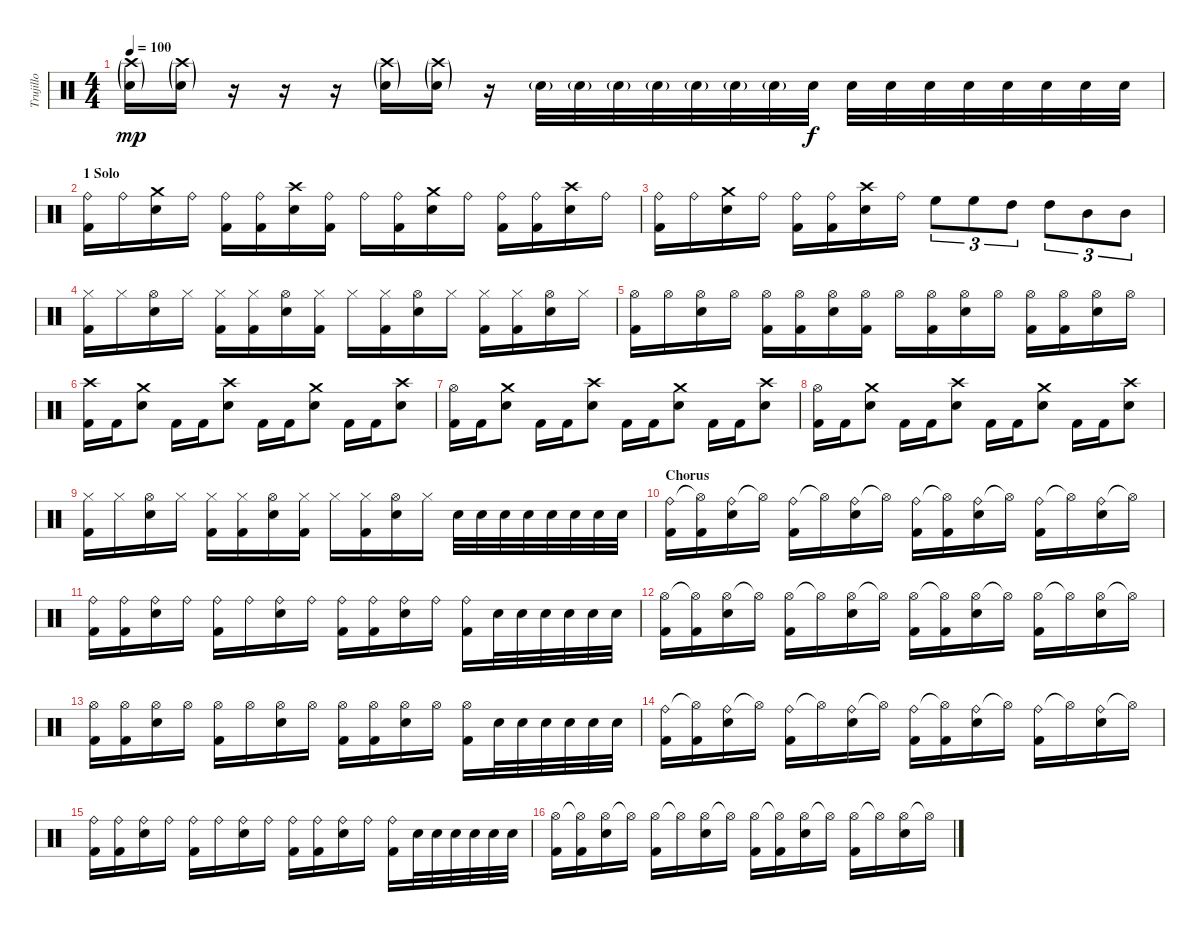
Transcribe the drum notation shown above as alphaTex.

\track ("Trujillo" "Trujillo") {instrument percussion}
\staff {score}
\articulation defaults
\ts (4 4)
\tempo 100
\clef neutral
\ks c
("Crash high (hit)"{g} "Electric Snare (hit)"{g}).16{dy mp} ("Crash high (hit)"{g} "Electric Snare (hit)"{g}).16 r.16 r.16 r.16 ("Crash high (hit)"{g} "Electric Snare (hit)"{g}).16 ("Crash high (hit)"{g} "Electric Snare (hit)"{g}).16 r.16 "Electric Snare (hit)"{g}.32 "Electric Snare (hit)"{g}.32 "Electric Snare (hit)"{g}.32 "Electric Snare (hit)"{g}.32 "Electric Snare (hit)"{g}.32 "Electric Snare (hit)"{g}.32 "Electric Snare (hit)"{g}.32 "Electric Snare (hit)".32{dy f} "Electric Snare (hit)".32 "Electric Snare (hit)".32 "Electric Snare (hit)".32 "Electric Snare (hit)".32 "Electric Snare (hit)".32 "Electric Snare (hit)".32 "Electric Snare (hit)".32 "Electric Snare (hit)".32 |
\section ("" "1 Solo")
("Ride (bell)" "Kick (hit) 2").16 "Ride (bell)".16 ("Crash medium (hit)" "Electric Snare (hit)").16 "Ride (bell)".16 ("Ride (bell)" "Kick (hit) 2").16 ("Ride (bell)" "Kick (hit) 2").16 ("Crash high (hit)" "Electric Snare (hit)").16 ("Ride (bell)" "Kick (hit) 2").16 "Ride (bell)".16 ("Ride (bell)" "Kick (hit) 2").16 ("Crash medium (hit)" "Electric Snare (hit)").16 "Ride (bell)".16 ("Ride (bell)" "Kick (hit) 2").16 ("Ride (bell)" "Kick (hit) 2").16 ("Crash high (hit)" "Electric Snare (hit)").16 "Ride (bell)".16 |
("Ride (bell)" "Kick (hit) 2").16 "Ride (bell)".16 ("Crash medium (hit)" "Electric Snare (hit)").16 "Ride (bell)".16 ("Ride (bell)" "Kick (hit) 2").16 ("Ride (bell)" "Kick (hit) 2").16 ("Crash high (hit)" "Electric Snare (hit)").16 "Ride (bell)".16 "High Floor Tom (hit)".8{tu (3 2)} "High Floor Tom (hit)".8{tu (3 2)} "High Tom (hit)".8{tu (3 2)} "High Tom (hit)".8{tu (3 2)} "Mid Tom (hit)".8{tu (3 2)} "Mid Tom (hit)".8{tu (3 2)} |
("Hi-Hat (closed)" "Kick (hit) 2").16 "Hi-Hat (closed)".16 ("Hi-Hat (open)" "Electric Snare (hit)").16 "Hi-Hat (closed)".16 ("Hi-Hat (closed)" "Kick (hit) 2").16 ("Hi-Hat (closed)" "Kick (hit) 2").16 ("Hi-Hat (open)" "Electric Snare (hit)").16 ("Hi-Hat (closed)" "Kick (hit) 2").16 "Hi-Hat (closed)".16 ("Hi-Hat (closed)" "Kick (hit) 2").16 ("Hi-Hat (open)" "Electric Snare (hit)").16 "Hi-Hat (closed)".16 ("Hi-Hat (closed)" "Kick (hit) 2").16 ("Hi-Hat (closed)" "Kick (hit) 2").16 ("Hi-Hat (open)" "Electric Snare (hit)").16 "Hi-Hat (closed)".16 |
("Hi-Hat (open)" "Kick (hit) 2").16 "Hi-Hat (open)".16 ("Hi-Hat (open)" "Electric Snare (hit)").16 "Hi-Hat (open)".16 ("Hi-Hat (open)" "Kick (hit) 2").16 ("Hi-Hat (open)" "Kick (hit) 2").16 ("Hi-Hat (open)" "Electric Snare (hit)").16 ("Hi-Hat (open)" "Kick (hit) 2").16 "Hi-Hat (open)".16 ("Hi-Hat (open)" "Kick (hit) 2").16 ("Hi-Hat (open)" "Electric Snare (hit)").16 "Hi-Hat (open)".16 ("Hi-Hat (open)" "Kick (hit) 2").16 ("Hi-Hat (open)" "Kick (hit) 2").16 ("Hi-Hat (open)" "Electric Snare (hit)").16 "Hi-Hat (open)".16 |
("Crash high (hit)" "Kick (hit) 2").16 "Kick (hit) 2".16 ("Crash medium (hit)" "Electric Snare (hit)").8 "Kick (hit) 2".16 "Kick (hit) 2".16 ("Crash high (hit)" "Electric Snare (hit)").8 "Kick (hit) 2".16 "Kick (hit) 2".16 ("Crash medium (hit)" "Electric Snare (hit)").8 "Kick (hit) 2".16 "Kick (hit) 2".16 ("Crash high (hit)" "Electric Snare (hit)").8 |
("Hi-Hat (open)" "Kick (hit) 2").16 "Kick (hit) 2".16 ("Crash medium (hit)" "Electric Snare (hit)").8 "Kick (hit) 2".16 "Kick (hit) 2".16 ("Crash high (hit)" "Electric Snare (hit)").8 "Kick (hit) 2".16 "Kick (hit) 2".16 ("Crash medium (hit)" "Electric Snare (hit)").8 "Kick (hit) 2".16 "Kick (hit) 2".16 ("Crash high (hit)" "Electric Snare (hit)").8 |
("Hi-Hat (open)" "Kick (hit) 2").16 "Kick (hit) 2".16 ("Crash medium (hit)" "Electric Snare (hit)").8 "Kick (hit) 2".16 "Kick (hit) 2".16 ("Crash high (hit)" "Electric Snare (hit)").8 "Kick (hit) 2".16 "Kick (hit) 2".16 ("Crash medium (hit)" "Electric Snare (hit)").8 "Kick (hit) 2".16 "Kick (hit) 2".16 ("Crash high (hit)" "Electric Snare (hit)").8 |
("Hi-Hat (closed)" "Kick (hit) 2").16 "Hi-Hat (closed)".16 ("Hi-Hat (open)" "Electric Snare (hit)").16 "Hi-Hat (closed)".16 ("Hi-Hat (closed)" "Kick (hit) 2").16 ("Hi-Hat (closed)" "Kick (hit) 2").16 ("Hi-Hat (open)" "Electric Snare (hit)").16 ("Hi-Hat (closed)" "Kick (hit) 2").16 "Hi-Hat (closed)".16 ("Hi-Hat (closed)" "Kick (hit) 2").16 ("Hi-Hat (open)" "Electric Snare (hit)").16 "Hi-Hat (closed)".16 "Electric Snare (hit)".32 "Electric Snare (hit)".32 "Electric Snare (hit)".32 "Electric Snare (hit)".32 "Electric Snare (hit)".32 "Electric Snare (hit)".32 "Electric Snare (hit)".32 "Electric Snare (hit)".32 |
\section ("" "Chorus")
("Ride (bell)" "Kick (hit) 2").16 ("Hi-Hat (open)"{t} "Kick (hit) 2").16 ("Ride (bell)" "Electric Snare (hit)").16 "Hi-Hat (open)"{t}.16 ("Ride (bell)" "Kick (hit) 2").16 "Hi-Hat (open)"{t}.16 ("Ride (bell)" "Electric Snare (hit)").16 "Hi-Hat (open)"{t}.16 ("Ride (bell)" "Kick (hit) 2").16 ("Hi-Hat (open)"{t} "Kick (hit) 2").16 ("Ride (bell)" "Electric Snare (hit)").16 "Hi-Hat (open)"{t}.16 ("Ride (bell)" "Kick (hit) 2").16 "Hi-Hat (open)"{t}.16 ("Ride (bell)" "Electric Snare (hit)").16 "Hi-Hat (open)"{t}.16 |
("Ride (bell)" "Kick (hit) 2").16 ("Ride (bell)" "Kick (hit) 2").16 ("Ride (bell)" "Electric Snare (hit)").16 "Ride (bell)".16 ("Ride (bell)" "Kick (hit) 2").16 "Ride (bell)".16 ("Ride (bell)" "Electric Snare (hit)").16 "Ride (bell)".16 ("Ride (bell)" "Kick (hit) 2").16 ("Ride (bell)" "Kick (hit) 2").16 ("Ride (bell)" "Electric Snare (hit)").16 "Ride (bell)".16 ("Ride (bell)" "Kick (hit) 2").16 "Electric Snare (hit)".32 "Electric Snare (hit)".32 "Electric Snare (hit)".32 "Electric Snare (hit)".32 "Electric Snare (hit)".32 "Electric Snare (hit)".32 |
("Hi-Hat (open)" "Kick (hit) 2").16 ("Hi-Hat (open)"{t} "Kick (hit) 2").16 ("Hi-Hat (open)" "Electric Snare (hit)").16 "Hi-Hat (open)"{t}.16 ("Hi-Hat (open)" "Kick (hit) 2").16 "Hi-Hat (open)"{t}.16 ("Hi-Hat (open)" "Electric Snare (hit)").16 "Hi-Hat (open)"{t}.16 ("Hi-Hat (open)" "Kick (hit) 2").16 ("Hi-Hat (open)"{t} "Kick (hit) 2").16 ("Hi-Hat (open)" "Electric Snare (hit)").16 "Hi-Hat (open)"{t}.16 ("Hi-Hat (open)" "Kick (hit) 2").16 "Hi-Hat (open)"{t}.16 ("Hi-Hat (open)" "Electric Snare (hit)").16 "Hi-Hat (open)"{t}.16 |
("Hi-Hat (open)" "Kick (hit) 2").16 ("Hi-Hat (open)" "Kick (hit) 2").16 ("Hi-Hat (open)" "Electric Snare (hit)").16 "Hi-Hat (open)".16 ("Hi-Hat (open)" "Kick (hit) 2").16 "Hi-Hat (open)".16 ("Hi-Hat (open)" "Electric Snare (hit)").16 "Hi-Hat (open)".16 ("Hi-Hat (open)" "Kick (hit) 2").16 ("Hi-Hat (open)" "Kick (hit) 2").16 ("Hi-Hat (open)" "Electric Snare (hit)").16 "Hi-Hat (open)".16 ("Hi-Hat (open)" "Kick (hit) 2").16 "Electric Snare (hit)".32 "Electric Snare (hit)".32 "Electric Snare (hit)".32 "Electric Snare (hit)".32 "Electric Snare (hit)".32 "Electric Snare (hit)".32 |
("Ride (bell)" "Kick (hit) 2").16 ("Hi-Hat (open)"{t} "Kick (hit) 2").16 ("Ride (bell)" "Electric Snare (hit)").16 "Hi-Hat (open)"{t}.16 ("Ride (bell)" "Kick (hit) 2").16 "Hi-Hat (open)"{t}.16 ("Ride (bell)" "Electric Snare (hit)").16 "Hi-Hat (open)"{t}.16 ("Ride (bell)" "Kick (hit) 2").16 ("Hi-Hat (open)"{t} "Kick (hit) 2").16 ("Ride (bell)" "Electric Snare (hit)").16 "Hi-Hat (open)"{t}.16 ("Ride (bell)" "Kick (hit) 2").16 "Hi-Hat (open)"{t}.16 ("Ride (bell)" "Electric Snare (hit)").16 "Hi-Hat (open)"{t}.16 |
("Ride (bell)" "Kick (hit) 2").16 ("Ride (bell)" "Kick (hit) 2").16 ("Ride (bell)" "Electric Snare (hit)").16 "Ride (bell)".16 ("Ride (bell)" "Kick (hit) 2").16 "Ride (bell)".16 ("Ride (bell)" "Electric Snare (hit)").16 "Ride (bell)".16 ("Ride (bell)" "Kick (hit) 2").16 ("Ride (bell)" "Kick (hit) 2").16 ("Ride (bell)" "Electric Snare (hit)").16 "Ride (bell)".16 ("Ride (bell)" "Kick (hit) 2").16 "Electric Snare (hit)".32 "Electric Snare (hit)".32 "Electric Snare (hit)".32 "Electric Snare (hit)".32 "Electric Snare (hit)".32 "Electric Snare (hit)".32 |
("Hi-Hat (open)" "Kick (hit) 2").16 ("Hi-Hat (open)"{t} "Kick (hit) 2").16 ("Hi-Hat (open)" "Electric Snare (hit)").16 "Hi-Hat (open)"{t}.16 ("Hi-Hat (open)" "Kick (hit) 2").16 "Hi-Hat (open)"{t}.16 ("Hi-Hat (open)" "Electric Snare (hit)").16 "Hi-Hat (open)"{t}.16 ("Hi-Hat (open)" "Kick (hit) 2").16 ("Hi-Hat (open)"{t} "Kick (hit) 2").16 ("Hi-Hat (open)" "Electric Snare (hit)").16 "Hi-Hat (open)"{t}.16 ("Hi-Hat (open)" "Kick (hit) 2").16 "Hi-Hat (open)"{t}.16 ("Hi-Hat (open)" "Electric Snare (hit)").16 "Hi-Hat (open)"{t}.16
